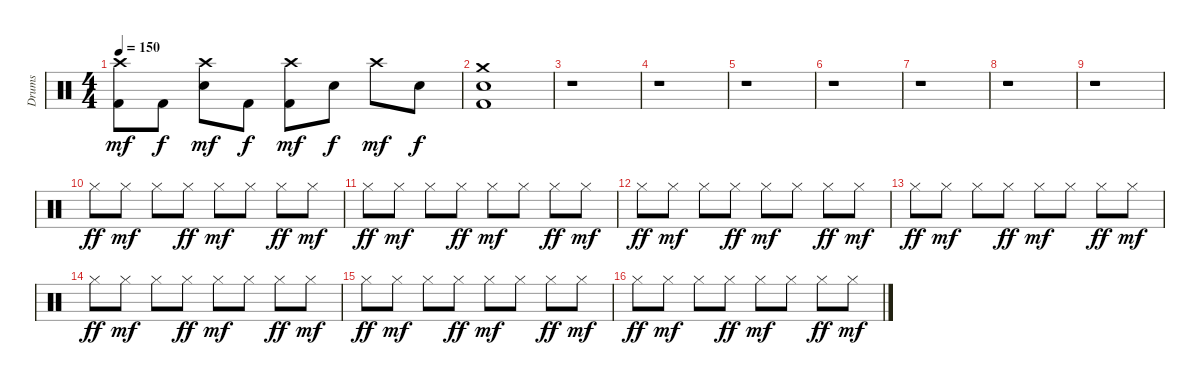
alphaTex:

\track ("Drums" "Drums") {instrument percussion}
\staff {score}
\articulation defaults
\ts (4 4)
\tempo 150
\clef neutral
\ks c
("Kick (hit) 2" "Crash high (hit)").8{dy mf} "Kick (hit) 2".8{dy f} ("Electric Snare (hit)" "Crash high (hit)").8{dy mf} "Kick (hit) 2".8{dy f} ("Kick (hit) 2" "Crash high (hit)").8{dy mf} "Electric Snare (hit)".8{dy f} "Crash high (hit)".8{dy mf} "Electric Snare (hit)".8{dy f} |
("Kick (hit) 2" "Electric Snare (hit)" "Crash medium (hit)").1 |
r.1 |
r.1 |
r.1 |
r.1 |
r.1 |
r.1 |
r.1 |
"Hi-Hat (closed)".8{dy ff} "Hi-Hat (closed)".8{dy mf} "Hi-Hat (closed)".8 "Hi-Hat (closed)".8{dy ff} "Hi-Hat (closed)".8{dy mf} "Hi-Hat (closed)".8 "Hi-Hat (closed)".8{dy ff} "Hi-Hat (closed)".8{dy mf} |
"Hi-Hat (closed)".8{dy ff} "Hi-Hat (closed)".8{dy mf} "Hi-Hat (closed)".8 "Hi-Hat (closed)".8{dy ff} "Hi-Hat (closed)".8{dy mf} "Hi-Hat (closed)".8 "Hi-Hat (closed)".8{dy ff} "Hi-Hat (closed)".8{dy mf} |
"Hi-Hat (closed)".8{dy ff} "Hi-Hat (closed)".8{dy mf} "Hi-Hat (closed)".8 "Hi-Hat (closed)".8{dy ff} "Hi-Hat (closed)".8{dy mf} "Hi-Hat (closed)".8 "Hi-Hat (closed)".8{dy ff} "Hi-Hat (closed)".8{dy mf} |
"Hi-Hat (closed)".8{dy ff} "Hi-Hat (closed)".8{dy mf} "Hi-Hat (closed)".8 "Hi-Hat (closed)".8{dy ff} "Hi-Hat (closed)".8{dy mf} "Hi-Hat (closed)".8 "Hi-Hat (closed)".8{dy ff} "Hi-Hat (closed)".8{dy mf} |
"Hi-Hat (closed)".8{dy ff} "Hi-Hat (closed)".8{dy mf} "Hi-Hat (closed)".8 "Hi-Hat (closed)".8{dy ff} "Hi-Hat (closed)".8{dy mf} "Hi-Hat (closed)".8 "Hi-Hat (closed)".8{dy ff} "Hi-Hat (closed)".8{dy mf} |
"Hi-Hat (closed)".8{dy ff} "Hi-Hat (closed)".8{dy mf} "Hi-Hat (closed)".8 "Hi-Hat (closed)".8{dy ff} "Hi-Hat (closed)".8{dy mf} "Hi-Hat (closed)".8 "Hi-Hat (closed)".8{dy ff} "Hi-Hat (closed)".8{dy mf} |
"Hi-Hat (closed)".8{dy ff} "Hi-Hat (closed)".8{dy mf} "Hi-Hat (closed)".8 "Hi-Hat (closed)".8{dy ff} "Hi-Hat (closed)".8{dy mf} "Hi-Hat (closed)".8 "Hi-Hat (closed)".8{dy ff} "Hi-Hat (closed)".8{dy mf}
